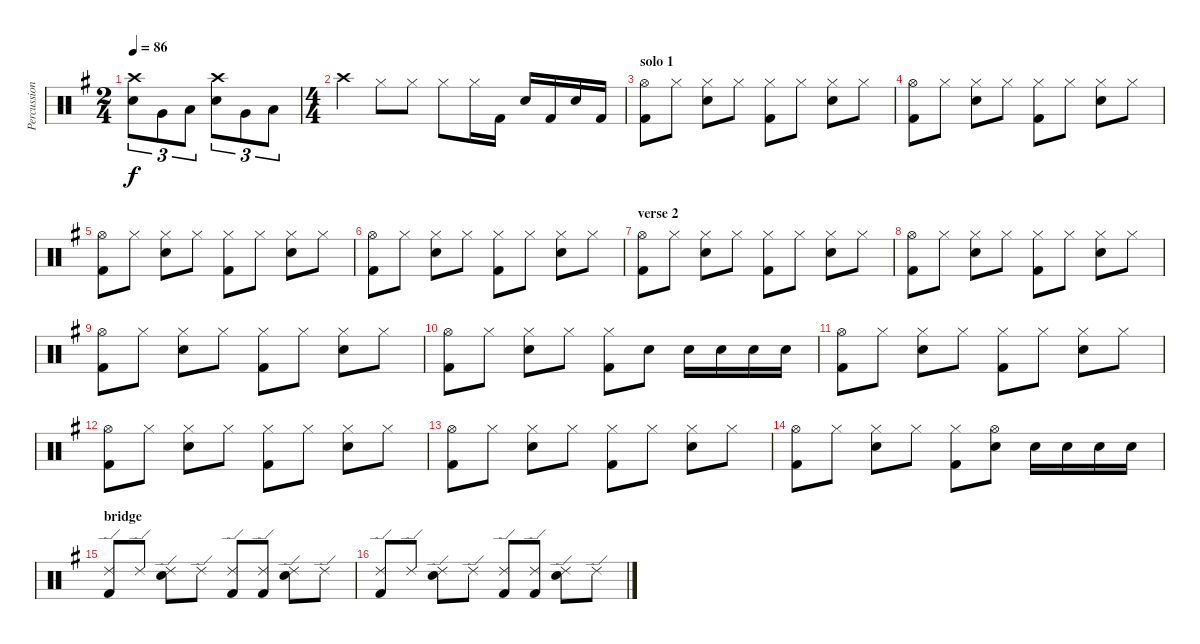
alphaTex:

\track ("Percussion" "Percussion") {instrument percussion}
\staff {score}
\articulation defaults
\ts (2 4)
\tempo 86
\clef neutral
\ks eminor
("Snare (hit) 2" "Crash high (hit)").8{tu (3 2) dy f} "Very Low Tom (hit)".8{tu (3 2)} "Low Floor Tom (hit)".8{tu (3 2)} ("Snare (hit) 2" "Crash high (hit)").8{tu (3 2)} "Very Low Tom (hit)".8{tu (3 2)} "Low Floor Tom (hit)".8{tu (3 2)} |
\ts (4 4)
"Crash high (hit)".4 "Hi-Hat (closed)".8 "Hi-Hat (closed)".8 "Hi-Hat (closed)".8 "Hi-Hat (closed)".16 "Kick (hit) 2".16 "Snare (hit) 2".16 "Kick (hit) 2".16 "Snare (hit) 2".16 "Kick (hit) 2".16 |
\section ("" "solo 1")
("Hi-Hat (open)" "Kick (hit) 2").8 "Hi-Hat (closed)".8 ("Hi-Hat (closed)" "Snare (hit) 2").8 "Hi-Hat (closed)".8 ("Hi-Hat (closed)" "Kick (hit) 2").8 "Hi-Hat (closed)".8 ("Hi-Hat (closed)" "Snare (hit) 2").8 "Hi-Hat (closed)".8 |
("Hi-Hat (open)" "Kick (hit) 2").8 "Hi-Hat (closed)".8 ("Hi-Hat (closed)" "Snare (hit) 2").8 "Hi-Hat (closed)".8 ("Hi-Hat (closed)" "Kick (hit) 2").8 "Hi-Hat (closed)".8 ("Hi-Hat (closed)" "Snare (hit) 2").8 "Hi-Hat (closed)".8 |
("Hi-Hat (open)" "Kick (hit) 2").8 "Hi-Hat (closed)".8 ("Hi-Hat (closed)" "Snare (hit) 2").8 "Hi-Hat (closed)".8 ("Hi-Hat (closed)" "Kick (hit) 2").8 "Hi-Hat (closed)".8 ("Hi-Hat (closed)" "Snare (hit) 2").8 "Hi-Hat (closed)".8 |
("Hi-Hat (open)" "Kick (hit) 2").8 "Hi-Hat (closed)".8 ("Hi-Hat (closed)" "Snare (hit) 2").8 "Hi-Hat (closed)".8 ("Hi-Hat (closed)" "Kick (hit) 2").8 "Hi-Hat (closed)".8 ("Hi-Hat (closed)" "Snare (hit) 2").8 "Hi-Hat (closed)".8 |
\section ("" "verse 2")
("Hi-Hat (open)" "Kick (hit) 2").8 "Hi-Hat (closed)".8 ("Hi-Hat (closed)" "Snare (hit) 2").8 "Hi-Hat (closed)".8 ("Hi-Hat (closed)" "Kick (hit) 2").8 "Hi-Hat (closed)".8 ("Hi-Hat (closed)" "Snare (hit) 2").8 "Hi-Hat (closed)".8 |
("Hi-Hat (open)" "Kick (hit) 2").8 "Hi-Hat (closed)".8 ("Hi-Hat (closed)" "Snare (hit) 2").8 "Hi-Hat (closed)".8 ("Hi-Hat (closed)" "Kick (hit) 2").8 "Hi-Hat (closed)".8 ("Hi-Hat (closed)" "Snare (hit) 2").8 "Hi-Hat (closed)".8 |
("Hi-Hat (open)" "Kick (hit) 2").8 "Hi-Hat (closed)".8 ("Hi-Hat (closed)" "Snare (hit) 2").8 "Hi-Hat (closed)".8 ("Hi-Hat (closed)" "Kick (hit) 2").8 "Hi-Hat (closed)".8 ("Hi-Hat (closed)" "Snare (hit) 2").8 "Hi-Hat (closed)".8 |
("Hi-Hat (open)" "Kick (hit) 2").8 "Hi-Hat (closed)".8 ("Hi-Hat (closed)" "Snare (hit) 2").8 "Hi-Hat (closed)".8 ("Hi-Hat (closed)" "Kick (hit) 2").8 "Snare (hit) 2".8 "Snare (hit) 2".16 "Snare (hit) 2".16 "Snare (hit) 2".16 "Snare (hit) 2".16 |
("Hi-Hat (open)" "Kick (hit) 2").8 "Hi-Hat (closed)".8 ("Hi-Hat (closed)" "Snare (hit) 2").8 "Hi-Hat (closed)".8 ("Hi-Hat (closed)" "Kick (hit) 2").8 "Hi-Hat (closed)".8 ("Hi-Hat (closed)" "Snare (hit) 2").8 "Hi-Hat (closed)".8 |
("Hi-Hat (open)" "Kick (hit) 2").8 "Hi-Hat (closed)".8 ("Hi-Hat (closed)" "Snare (hit) 2").8 "Hi-Hat (closed)".8 ("Hi-Hat (closed)" "Kick (hit) 2").8 "Hi-Hat (closed)".8 ("Hi-Hat (closed)" "Snare (hit) 2").8 "Hi-Hat (closed)".8 |
("Hi-Hat (open)" "Kick (hit) 2").8 "Hi-Hat (closed)".8 ("Hi-Hat (closed)" "Snare (hit) 2").8 "Hi-Hat (closed)".8 ("Hi-Hat (closed)" "Kick (hit) 2").8 "Hi-Hat (closed)".8 ("Hi-Hat (closed)" "Snare (hit) 2").8 "Hi-Hat (closed)".8 |
("Hi-Hat (open)" "Kick (hit) 2").8 "Hi-Hat (closed)".8 ("Hi-Hat (closed)" "Snare (hit) 2").8 "Hi-Hat (closed)".8 ("Hi-Hat (closed)" "Kick (hit) 2").8 ("Hi-Hat (open)" "Snare (hit) 2").8 "Snare (hit) 2".16 "Snare (hit) 2".16 "Snare (hit) 2".16 "Snare (hit) 2".16 |
\section ("" "bridge")
("Ride (edge) 2" "Kick (hit) 2").8 "Ride (edge) 2".8 ("Ride (edge) 2" "Snare (hit) 2").8 "Ride (edge) 2".8 ("Ride (edge) 2" "Kick (hit) 2").8 ("Ride (edge) 2" "Kick (hit) 2").8 ("Ride (edge) 2" "Snare (hit) 2").8 "Ride (edge) 2".8 |
("Ride (edge) 2" "Kick (hit) 2").8 "Ride (edge) 2".8 ("Ride (edge) 2" "Snare (hit) 2").8 "Ride (edge) 2".8 ("Ride (edge) 2" "Kick (hit) 2").8 ("Ride (edge) 2" "Kick (hit) 2").8 ("Ride (edge) 2" "Snare (hit) 2").8 "Ride (edge) 2".8
